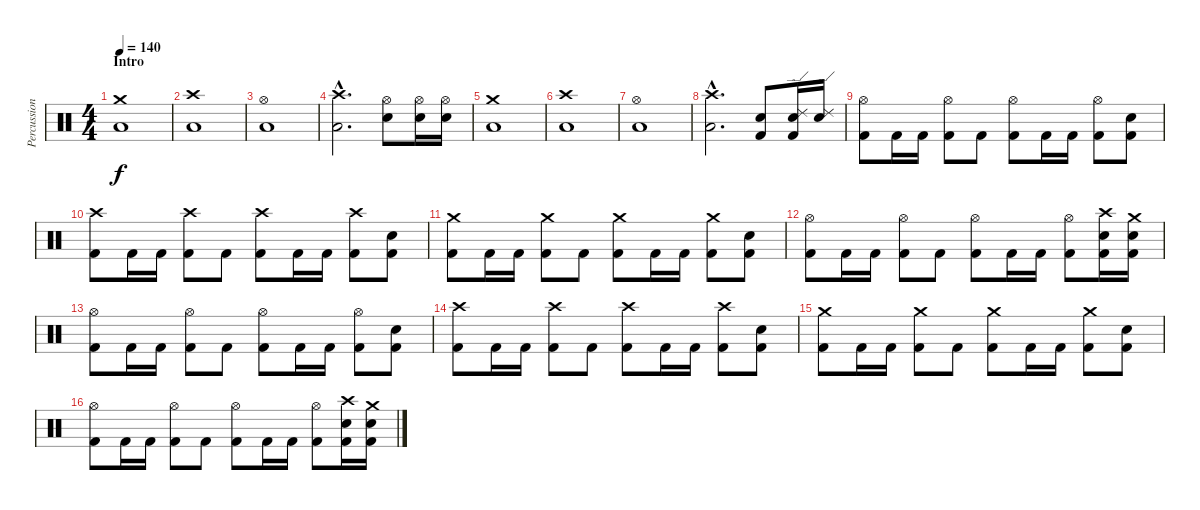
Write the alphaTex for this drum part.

\track ("Percussion" "Percussion") {instrument percussion}
\staff {score}
\articulation defaults
\ts (4 4)
\section ("" "Intro")
\tempo 140
\clef neutral
\ks c
("Crash medium (hit)" "Low Floor Tom (hit)").1{dy f} |
("Crash high (hit)" "Low Floor Tom (hit)").1 |
("Hi-Hat (open)" "Low Floor Tom (hit)").1 |
("Crash high (hit)"{hac} "Low Floor Tom (hit)"{hac}).2{d} ("Hi-Hat (open)" "Snare (hit) 2").8 ("Hi-Hat (open)" "Snare (hit) 2").16 ("Hi-Hat (open)" "Snare (hit) 2").16 |
("Crash medium (hit)" "Low Floor Tom (hit)").1 |
("Crash high (hit)" "Low Floor Tom (hit)").1 |
("Hi-Hat (open)" "Low Floor Tom (hit)").1 |
("Crash high (hit)"{hac} "Low Floor Tom (hit)"{hac}).2{d} ("Snare (hit) 2" "Kick (hit) 2").8 ("Ride (edge) 2" "Snare (hit) 2" "Kick (hit) 2").16 ("Ride (edge) 2" "Snare (hit) 2").16 |
("Hi-Hat (open)" "Kick (hit) 2").8 "Kick (hit) 2".16 "Kick (hit) 2".16 ("Hi-Hat (open)" "Kick (hit) 2").8 "Kick (hit) 2".8 ("Hi-Hat (open)" "Kick (hit) 2").8 "Kick (hit) 2".16 "Kick (hit) 2".16 ("Hi-Hat (open)" "Kick (hit) 2").8 ("Snare (hit) 2" "Kick (hit) 2").8 |
("Crash high (hit)" "Kick (hit) 2").8 "Kick (hit) 2".16 "Kick (hit) 2".16 ("Crash high (hit)" "Kick (hit) 2").8 "Kick (hit) 2".8 ("Crash high (hit)" "Kick (hit) 2").8 "Kick (hit) 2".16 "Kick (hit) 2".16 ("Crash high (hit)" "Kick (hit) 2").8 ("Snare (hit) 2" "Kick (hit) 2").8 |
("Crash medium (hit)" "Kick (hit) 2").8 "Kick (hit) 2".16 "Kick (hit) 2".16 ("Crash medium (hit)" "Kick (hit) 2").8 "Kick (hit) 2".8 ("Crash medium (hit)" "Kick (hit) 2").8 "Kick (hit) 2".16 "Kick (hit) 2".16 ("Crash medium (hit)" "Kick (hit) 2").8 ("Snare (hit) 2" "Kick (hit) 2").8 |
("Hi-Hat (open)" "Kick (hit) 2").8 "Kick (hit) 2".16 "Kick (hit) 2".16 ("Hi-Hat (open)" "Kick (hit) 2").8 "Kick (hit) 2".8 ("Hi-Hat (open)" "Kick (hit) 2").8 "Kick (hit) 2".16 "Kick (hit) 2".16 ("Hi-Hat (open)" "Kick (hit) 2").8 ("Crash high (hit)" "Snare (hit) 2" "Kick (hit) 2").16 ("Crash medium (hit)" "Snare (hit) 2" "Kick (hit) 2").16 |
("Hi-Hat (open)" "Kick (hit) 2").8 "Kick (hit) 2".16 "Kick (hit) 2".16 ("Hi-Hat (open)" "Kick (hit) 2").8 "Kick (hit) 2".8 ("Hi-Hat (open)" "Kick (hit) 2").8 "Kick (hit) 2".16 "Kick (hit) 2".16 ("Hi-Hat (open)" "Kick (hit) 2").8 ("Snare (hit) 2" "Kick (hit) 2").8 |
("Crash high (hit)" "Kick (hit) 2").8 "Kick (hit) 2".16 "Kick (hit) 2".16 ("Crash high (hit)" "Kick (hit) 2").8 "Kick (hit) 2".8 ("Crash high (hit)" "Kick (hit) 2").8 "Kick (hit) 2".16 "Kick (hit) 2".16 ("Crash high (hit)" "Kick (hit) 2").8 ("Snare (hit) 2" "Kick (hit) 2").8 |
("Crash medium (hit)" "Kick (hit) 2").8 "Kick (hit) 2".16 "Kick (hit) 2".16 ("Crash medium (hit)" "Kick (hit) 2").8 "Kick (hit) 2".8 ("Crash medium (hit)" "Kick (hit) 2").8 "Kick (hit) 2".16 "Kick (hit) 2".16 ("Crash medium (hit)" "Kick (hit) 2").8 ("Snare (hit) 2" "Kick (hit) 2").8 |
("Hi-Hat (open)" "Kick (hit) 2").8 "Kick (hit) 2".16 "Kick (hit) 2".16 ("Hi-Hat (open)" "Kick (hit) 2").8 "Kick (hit) 2".8 ("Hi-Hat (open)" "Kick (hit) 2").8 "Kick (hit) 2".16 "Kick (hit) 2".16 ("Hi-Hat (open)" "Kick (hit) 2").8 ("Crash high (hit)" "Snare (hit) 2" "Kick (hit) 2").16 ("Crash medium (hit)" "Snare (hit) 2" "Kick (hit) 2").16
